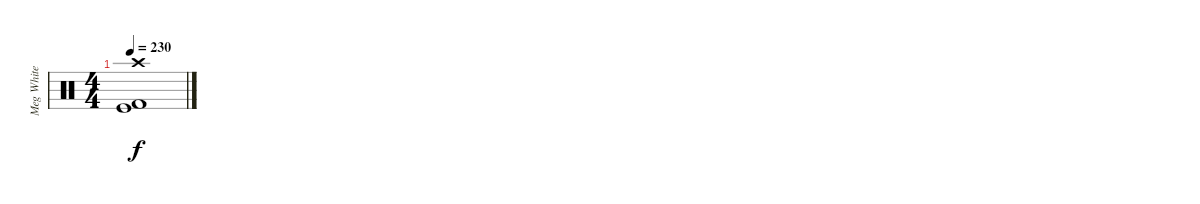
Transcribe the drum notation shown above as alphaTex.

\track ("Meg White (Drums)" "Meg White ") {instrument percussion}
\staff {score}
\articulation defaults
\ts (4 4)
\tempo 230
\clef neutral
\ks c
("Kick (hit) 2" "Kick (hit)" "Crash high (hit)").1{dy f}
